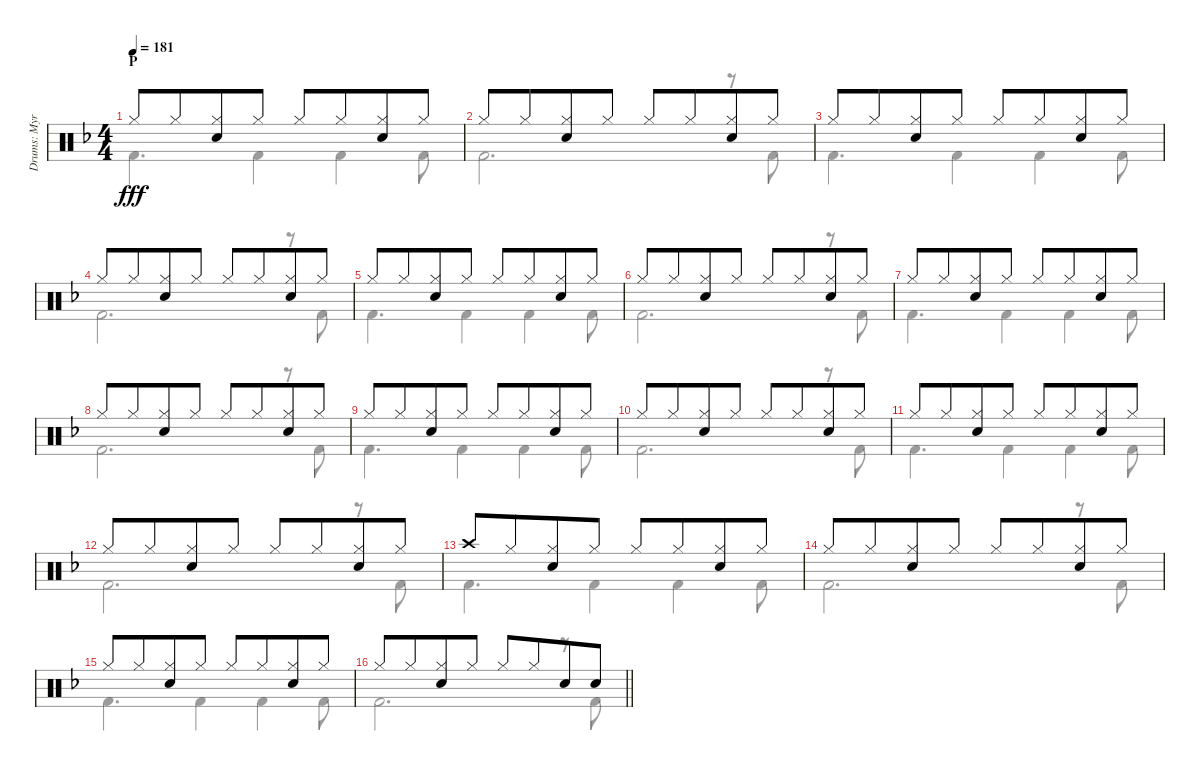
\track ("Drums: Myron" "Drums: Myr") {instrument percussion}
\staff {score}
\articulation defaults
\voice
\ts (4 4)
\section ("" "P")
\tempo 181
\clef neutral
\ks f "Hi-Hat (closed)".8{dy fff} "Hi-Hat (closed)".8{beam merge}
("Hi-Hat (closed)" "Electric Snare (hit)").8 "Hi-Hat (closed)".8 "Hi-Hat (closed)".8 "Hi-Hat (closed)".8{beam merge} ("Hi-Hat (closed)" "Electric Snare (hit)").8 "Hi-Hat (closed)".8 |
"Hi-Hat (closed)".8 "Hi-Hat (closed)".8{beam merge} ("Hi-Hat (closed)" "Electric Snare (hit)").8 "Hi-Hat (closed)".8 "Hi-Hat (closed)".8 "Hi-Hat (closed)".8{beam merge} ("Hi-Hat (closed)" "Electric Snare (hit)").8 "Hi-Hat (closed)".8 |
"Hi-Hat (closed)".8 "Hi-Hat (closed)".8{beam merge} ("Hi-Hat (closed)" "Electric Snare (hit)").8 "Hi-Hat (closed)".8 "Hi-Hat (closed)".8 "Hi-Hat (closed)".8{beam merge} ("Hi-Hat (closed)" "Electric Snare (hit)").8 "Hi-Hat (closed)".8 |
"Hi-Hat (closed)".8 "Hi-Hat (closed)".8{beam merge} ("Hi-Hat (closed)" "Electric Snare (hit)").8 "Hi-Hat (closed)".8 "Hi-Hat (closed)".8 "Hi-Hat (closed)".8{beam merge} ("Hi-Hat (closed)" "Electric Snare (hit)").8 "Hi-Hat (closed)".8 |
"Hi-Hat (closed)".8 "Hi-Hat (closed)".8{beam merge} ("Hi-Hat (closed)" "Electric Snare (hit)").8 "Hi-Hat (closed)".8 "Hi-Hat (closed)".8 "Hi-Hat (closed)".8{beam merge} ("Hi-Hat (closed)" "Electric Snare (hit)").8 "Hi-Hat (closed)".8 |
"Hi-Hat (closed)".8 "Hi-Hat (closed)".8{beam merge} ("Hi-Hat (closed)" "Electric Snare (hit)").8 "Hi-Hat (closed)".8 "Hi-Hat (closed)".8 "Hi-Hat (closed)".8{beam merge} ("Hi-Hat (closed)" "Electric Snare (hit)").8 "Hi-Hat (closed)".8 |
"Hi-Hat (closed)".8 "Hi-Hat (closed)".8{beam merge} ("Hi-Hat (closed)" "Electric Snare (hit)").8 "Hi-Hat (closed)".8 "Hi-Hat (closed)".8 "Hi-Hat (closed)".8{beam merge} ("Hi-Hat (closed)" "Electric Snare (hit)").8 "Hi-Hat (closed)".8 |
"Hi-Hat (closed)".8 "Hi-Hat (closed)".8{beam merge} ("Hi-Hat (closed)" "Electric Snare (hit)").8 "Hi-Hat (closed)".8 "Hi-Hat (closed)".8 "Hi-Hat (closed)".8{beam merge} ("Hi-Hat (closed)" "Electric Snare (hit)").8 "Hi-Hat (closed)".8 |
"Hi-Hat (closed)".8 "Hi-Hat (closed)".8{beam merge} ("Hi-Hat (closed)" "Electric Snare (hit)").8 "Hi-Hat (closed)".8 "Hi-Hat (closed)".8 "Hi-Hat (closed)".8{beam merge} ("Hi-Hat (closed)" "Electric Snare (hit)").8 "Hi-Hat (closed)".8 |
"Hi-Hat (closed)".8 "Hi-Hat (closed)".8{beam merge} ("Hi-Hat (closed)" "Electric Snare (hit)").8 "Hi-Hat (closed)".8 "Hi-Hat (closed)".8 "Hi-Hat (closed)".8{beam merge} ("Hi-Hat (closed)" "Electric Snare (hit)").8 "Hi-Hat (closed)".8 |
"Hi-Hat (closed)".8 "Hi-Hat (closed)".8{beam merge} ("Hi-Hat (closed)" "Electric Snare (hit)").8 "Hi-Hat (closed)".8 "Hi-Hat (closed)".8 "Hi-Hat (closed)".8{beam merge} ("Hi-Hat (closed)" "Electric Snare (hit)").8 "Hi-Hat (closed)".8 |
"Hi-Hat (closed)".8 "Hi-Hat (closed)".8{beam merge} ("Hi-Hat (closed)" "Electric Snare (hit)").8 "Hi-Hat (closed)".8 "Hi-Hat (closed)".8 "Hi-Hat (closed)".8{beam merge} ("Hi-Hat (closed)" "Electric Snare (hit)").8 "Hi-Hat (closed)".8 |
"Crash high (hit)".8 "Hi-Hat (closed)".8{beam merge} ("Hi-Hat (closed)" "Electric Snare (hit)").8 "Hi-Hat (closed)".8 "Hi-Hat (closed)".8 "Hi-Hat (closed)".8{beam merge} ("Hi-Hat (closed)" "Electric Snare (hit)").8 "Hi-Hat (closed)".8 |
"Hi-Hat (closed)".8 "Hi-Hat (closed)".8{beam merge} ("Hi-Hat (closed)" "Electric Snare (hit)").8 "Hi-Hat (closed)".8 "Hi-Hat (closed)".8 "Hi-Hat (closed)".8{beam merge} ("Hi-Hat (closed)" "Electric Snare (hit)").8 "Hi-Hat (closed)".8 |
"Hi-Hat (closed)".8 "Hi-Hat (closed)".8{beam merge} ("Hi-Hat (closed)" "Electric Snare (hit)").8 "Hi-Hat (closed)".8 "Hi-Hat (closed)".8 "Hi-Hat (closed)".8{beam merge} ("Hi-Hat (closed)" "Electric Snare (hit)").8 "Hi-Hat (closed)".8 |
\barLineRight lightlight "Hi-Hat (closed)".8 "Hi-Hat (closed)".8{beam merge}
("Hi-Hat (closed)" "Electric Snare (hit)").8 "Hi-Hat (closed)".8 "Hi-Hat (closed)".8 "Hi-Hat (closed)".8{beam merge} "Electric Snare (hit)".8 "Electric Snare (hit)".8
\voice
\clef neutral
\ottava regular
\simile none
\ks f "Kick (hit) 2".4{d dy fff} "Kick (hit) 2".4 "Kick (hit) 2".4 "Kick (hit) 2".8
|
"Kick (hit) 2".2{d} r.8 "Kick (hit) 2".8 |
"Kick (hit) 2".4{d} "Kick (hit) 2".4 "Kick (hit) 2".4 "Kick (hit) 2".8 |
"Kick (hit) 2".2{d} r.8 "Kick (hit) 2".8 |
"Kick (hit) 2".4{d} "Kick (hit) 2".4 "Kick (hit) 2".4 "Kick (hit) 2".8 |
"Kick (hit) 2".2{d} r.8 "Kick (hit) 2".8 |
"Kick (hit) 2".4{d} "Kick (hit) 2".4 "Kick (hit) 2".4 "Kick (hit) 2".8 |
"Kick (hit) 2".2{d} r.8 "Kick (hit) 2".8 |
"Kick (hit) 2".4{d} "Kick (hit) 2".4 "Kick (hit) 2".4 "Kick (hit) 2".8 |
"Kick (hit) 2".2{d} r.8 "Kick (hit) 2".8 |
"Kick (hit) 2".4{d} "Kick (hit) 2".4 "Kick (hit) 2".4 "Kick (hit) 2".8 |
"Kick (hit) 2".2{d} r.8 "Kick (hit) 2".8 |
"Kick (hit) 2".4{d} "Kick (hit) 2".4 "Kick (hit) 2".4 "Kick (hit) 2".8 |
"Kick (hit) 2".2{d} r.8 "Kick (hit) 2".8 |
"Kick (hit) 2".4{d} "Kick (hit) 2".4 "Kick (hit) 2".4 "Kick (hit) 2".8 |
\barLineRight lightlight "Kick (hit) 2".2{d}
r.8 "Kick (hit) 2".8
